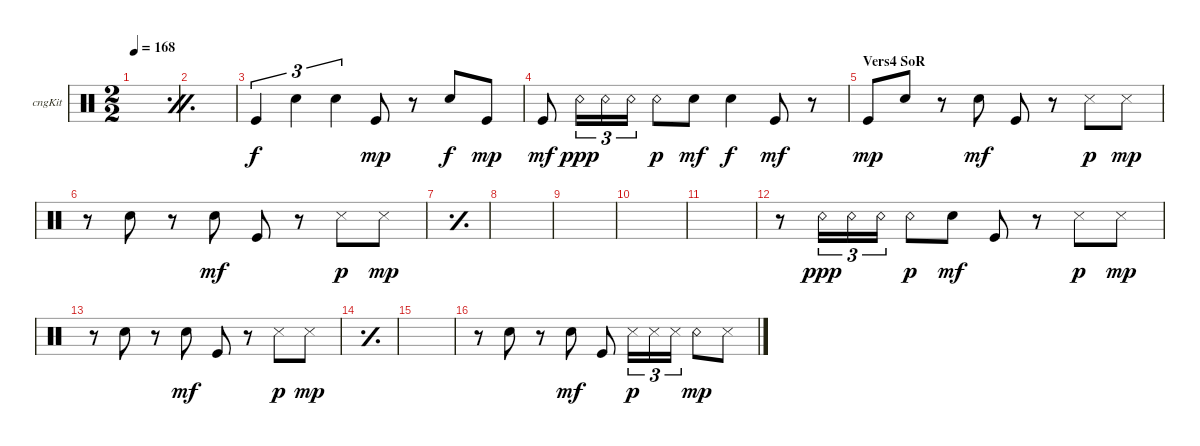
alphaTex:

\bracketExtendMode groupsimilarinstruments
\multiTrackTrackNamePolicy hidden
\firstSystemTrackNameOrientation horizontal
\otherSystemsTrackNameOrientation horizontal
\track ("Congas" "cngKit") {instrument percussion}
\staff {score}
\articulation defaults
\ts (2 2)
\tempo 168
\clef neutral
\simile firstofdouble
\ks c
|
\simile secondofdouble
|
\simile none "Kick (hit)".4{tu (3 2)} "Snare (hit) 2".4{tu (3 2)} "Snare (hit) 2".4{tu (3 2) dy f} "Kick (hit)".8{dy mp}
r.8 "Snare (hit) 2".8{dy f} "Kick (hit)".8{dy mp} |
"Kick (hit)".8{dy mf} "Snare (rim shot)".16{tu (3 2) dy ppp} "Snare (rim shot)".16{tu (3 2)} "Snare (rim shot)".16{tu (3 2)} "Snare (rim shot)".8{dy p} "Snare (hit) 2".8{dy mf} "Snare (hit) 2".4{dy f} "Kick (hit)".8{dy mf} r.8 |
\section ("" "Vers4 SoR")
"Kick (hit)".8{dy mp} "Snare (hit) 2".8 r.8 "Snare (hit) 2".8{dy mf} "Kick (hit)".8 r.8 "Snare (side stick) 3".8{dy p} "Snare (side stick) 3".8{dy mp} |
r.8 "Snare (hit) 2".8 r.8 "Snare (hit) 2".8{dy mf} "Kick (hit)".8 r.8 "Snare (side stick) 3".8{dy p} "Snare (side stick) 3".8{dy mp} |
\simile simple
|
|
|
|
|
\simile none
r.8 "Snare (rim shot)".16{tu (3 2) dy ppp} "Snare (rim shot)".16{tu (3 2)} "Snare (rim shot)".16{tu (3 2)} "Snare (rim shot)".8{dy p} "Snare (hit) 2".8{dy mf} "Kick (hit)".8 r.8 "Snare (side stick) 3".8{dy p} "Snare (side stick) 3".8{dy mp} |
r.8 "Snare (hit) 2".8 r.8 "Snare (hit) 2".8{dy mf} "Kick (hit)".8 r.8 "Snare (side stick) 3".8{dy p} "Snare (side stick) 3".8{dy mp} |
\simile simple
|
|
\simile none
r.8 "Snare (hit) 2".8 r.8 "Snare (hit) 2".8{dy mf} "Kick (hit)".8 "Snare (side stick) 3".16{tu (3 2) dy p} "Snare (side stick) 3".16{tu (3 2)} "Snare (side stick) 3".16{tu (3 2)} "Snare (rim shot)".8{dy mp} "Snare (side stick) 3".8
